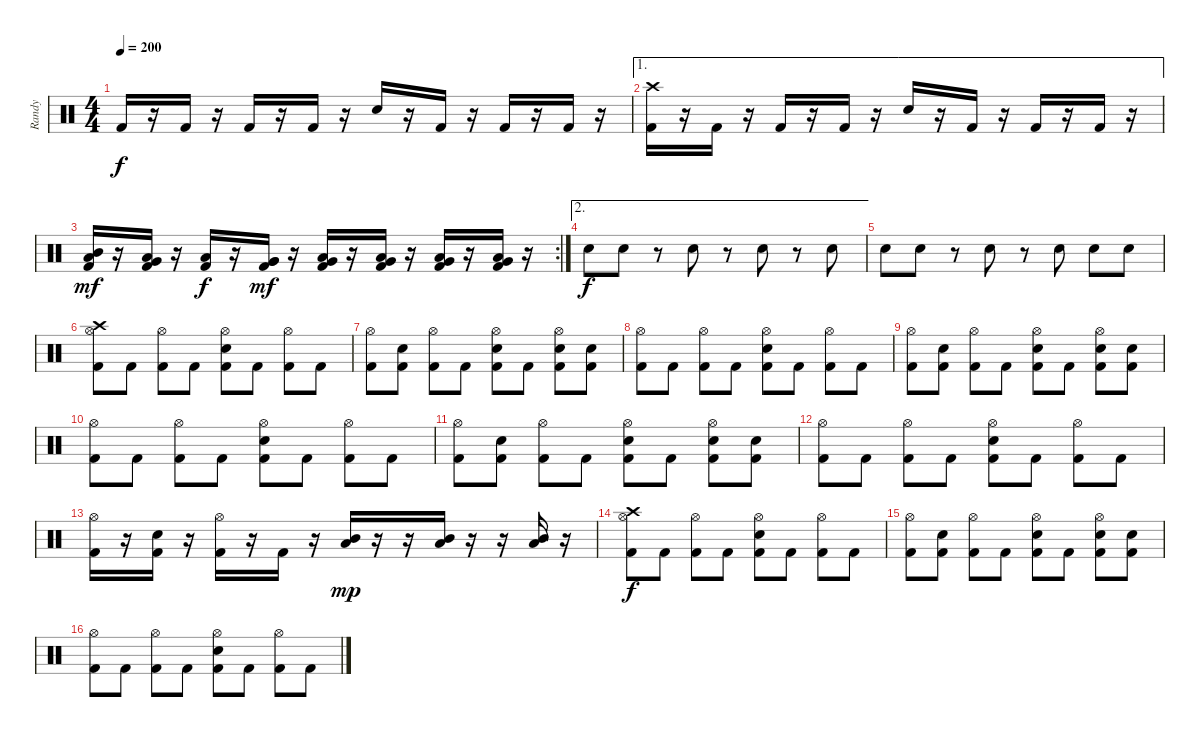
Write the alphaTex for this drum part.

\track ("Randy" "Randy") {instrument percussion}
\staff {score}
\articulation defaults
\ts (4 4)
\tempo 200
\clef neutral
\ks c "Kick (hit) 2".16{dy f}
r.16 "Kick (hit) 2".16 r.16 "Kick (hit) 2".16 r.16 "Kick (hit) 2".16 r.16 "Electric Snare (hit)".16 r.16 "Kick (hit) 2".16 r.16 "Kick (hit) 2".16 r.16 "Kick (hit) 2".16 r.16 |
\ae 1
("Kick (hit) 2" "Crash high (hit)").16 r.16 "Kick (hit) 2".16 r.16 "Kick (hit) 2".16 r.16 "Kick (hit) 2".16 r.16 "Electric Snare (hit)".16 r.16 "Kick (hit) 2".16 r.16 "Kick (hit) 2".16 r.16 "Kick (hit) 2".16 r.16 |
\rc 2
("Kick (hit) 2" "Low Tom (hit)" "Mid Tom (hit)").16{dy mf} r.16 ("Kick (hit) 2" "Very Low Tom (hit)" "Low Tom (hit)").16 r.16 ("Kick (hit) 2" "Low Tom (hit)").16{dy f} r.16 ("Kick (hit) 2" "Very Low Tom (hit)" "Very Low Tom (hit)").16{dy mf} r.16 ("Kick (hit) 2" "Low Tom (hit)" "Very Low Tom (hit)").16 r.16 ("Kick (hit) 2" "Low Tom (hit)" "Very Low Tom (hit)").16 r.16 ("Kick (hit) 2" "Very Low Tom (hit)" "Low Floor Tom (hit)").16 r.16 ("Kick (hit) 2" "Very Low Tom (hit)" "Low Floor Tom (hit)").16 r.16 |
\ae 2 "Electric Snare (hit)".8{dy f} "Electric Snare (hit)".8
r.8 "Electric Snare (hit)".8 r.8 "Electric Snare (hit)".8 r.8 "Electric Snare (hit)".8 |
"Electric Snare (hit)".8 "Electric Snare (hit)".8 r.8 "Electric Snare (hit)".8 r.8 "Electric Snare (hit)".8 "Electric Snare (hit)".8 "Electric Snare (hit)".8 |
("Kick (hit) 2" "Crash high (hit)" "Hi-Hat (open)").8 "Kick (hit) 2".8 ("Kick (hit) 2" "Hi-Hat (open)").8 "Kick (hit) 2".8 ("Kick (hit) 2" "Electric Snare (hit)" "Hi-Hat (open)").8 "Kick (hit) 2".8 ("Kick (hit) 2" "Hi-Hat (open)").8 "Kick (hit) 2".8 |
("Kick (hit) 2" "Hi-Hat (open)").8 ("Kick (hit) 2" "Electric Snare (hit)").8 ("Kick (hit) 2" "Hi-Hat (open)").8 "Kick (hit) 2".8 ("Kick (hit) 2" "Electric Snare (hit)" "Hi-Hat (open)").8 "Kick (hit) 2".8 ("Kick (hit) 2" "Electric Snare (hit)" "Hi-Hat (open)").8 ("Kick (hit) 2" "Electric Snare (hit)").8 |
("Kick (hit) 2" "Hi-Hat (open)").8 "Kick (hit) 2".8 ("Kick (hit) 2" "Hi-Hat (open)").8 "Kick (hit) 2".8 ("Kick (hit) 2" "Electric Snare (hit)" "Hi-Hat (open)").8 "Kick (hit) 2".8 ("Kick (hit) 2" "Hi-Hat (open)").8 "Kick (hit) 2".8 |
("Kick (hit) 2" "Hi-Hat (open)").8 ("Kick (hit) 2" "Electric Snare (hit)").8 ("Kick (hit) 2" "Hi-Hat (open)").8 "Kick (hit) 2".8 ("Kick (hit) 2" "Electric Snare (hit)" "Hi-Hat (open)").8 "Kick (hit) 2".8 ("Kick (hit) 2" "Electric Snare (hit)" "Hi-Hat (open)").8 ("Kick (hit) 2" "Electric Snare (hit)").8 |
("Kick (hit) 2" "Hi-Hat (open)").8 "Kick (hit) 2".8 ("Kick (hit) 2" "Hi-Hat (open)").8 "Kick (hit) 2".8 ("Kick (hit) 2" "Electric Snare (hit)" "Hi-Hat (open)").8 "Kick (hit) 2".8 ("Kick (hit) 2" "Hi-Hat (open)").8 "Kick (hit) 2".8 |
("Kick (hit) 2" "Hi-Hat (open)").8 ("Kick (hit) 2" "Electric Snare (hit)").8 ("Kick (hit) 2" "Hi-Hat (open)").8 "Kick (hit) 2".8 ("Kick (hit) 2" "Electric Snare (hit)" "Hi-Hat (open)").8 "Kick (hit) 2".8 ("Kick (hit) 2" "Electric Snare (hit)" "Hi-Hat (open)").8 ("Kick (hit) 2" "Electric Snare (hit)").8 |
("Kick (hit) 2" "Hi-Hat (open)").8 "Kick (hit) 2".8 ("Kick (hit) 2" "Hi-Hat (open)").8 "Kick (hit) 2".8 ("Kick (hit) 2" "Electric Snare (hit)" "Hi-Hat (open)").8 "Kick (hit) 2".8 ("Kick (hit) 2" "Hi-Hat (open)").8 "Kick (hit) 2".8 |
("Kick (hit) 2" "Hi-Hat (open)").16 r.16 ("Kick (hit) 2" "Electric Snare (hit)").16 r.16 ("Kick (hit) 2" "Hi-Hat (open)").16 r.16 "Kick (hit) 2".16 r.16 ("Mid Tom (hit)" "Low Tom (hit)").16{dy mp} r.16 r.16 ("Mid Tom (hit)" "Low Tom (hit)").16 r.16 r.16 ("Mid Tom (hit)" "Low Tom (hit)").16 r.16 |
("Kick (hit) 2" "Crash high (hit)" "Hi-Hat (open)").8{dy f} "Kick (hit) 2".8 ("Kick (hit) 2" "Hi-Hat (open)").8 "Kick (hit) 2".8 ("Kick (hit) 2" "Electric Snare (hit)" "Hi-Hat (open)").8 "Kick (hit) 2".8 ("Kick (hit) 2" "Hi-Hat (open)").8 "Kick (hit) 2".8 |
("Kick (hit) 2" "Hi-Hat (open)").8 ("Kick (hit) 2" "Electric Snare (hit)").8 ("Kick (hit) 2" "Hi-Hat (open)").8 "Kick (hit) 2".8 ("Kick (hit) 2" "Electric Snare (hit)" "Hi-Hat (open)").8 "Kick (hit) 2".8 ("Kick (hit) 2" "Electric Snare (hit)" "Hi-Hat (open)").8 ("Kick (hit) 2" "Electric Snare (hit)").8 |
("Kick (hit) 2" "Hi-Hat (open)").8 "Kick (hit) 2".8 ("Kick (hit) 2" "Hi-Hat (open)").8 "Kick (hit) 2".8 ("Kick (hit) 2" "Electric Snare (hit)" "Hi-Hat (open)").8 "Kick (hit) 2".8 ("Kick (hit) 2" "Hi-Hat (open)").8 "Kick (hit) 2".8
